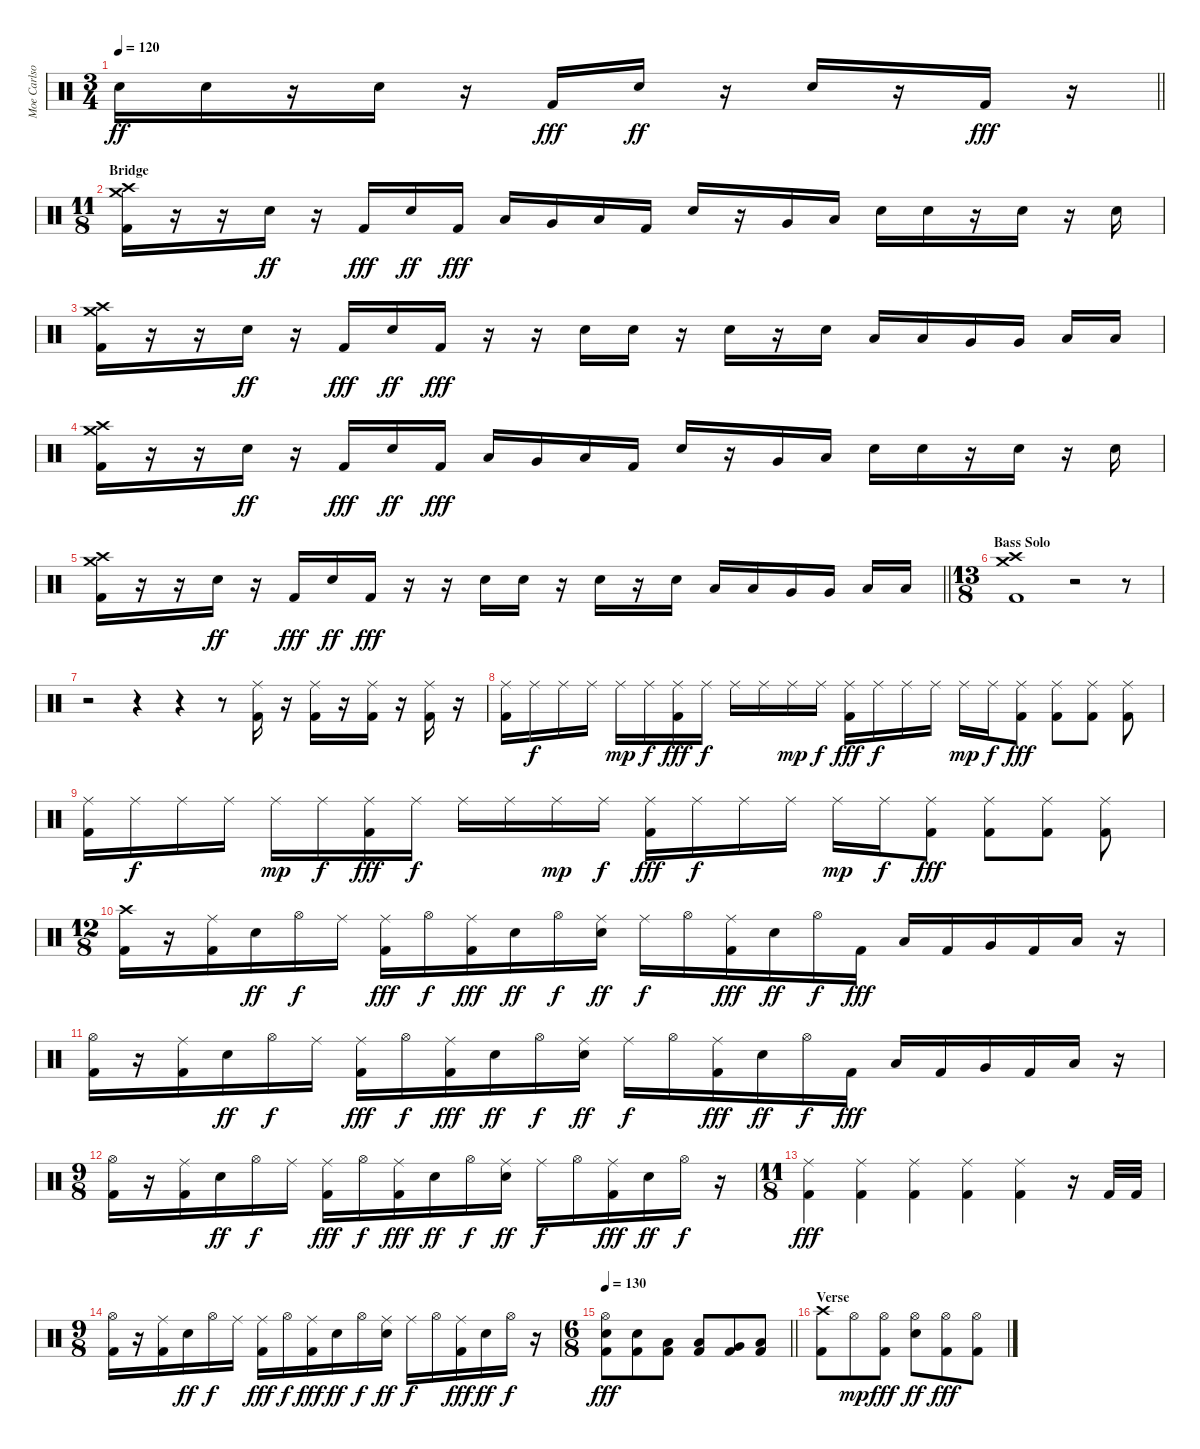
\track ("Moe Carlson" "Moe Carlso") {instrument percussion}
\staff {score}
\articulation defaults
\ts (3 4)
\tempo 120
\clef neutral
\barLineRight lightlight
\ks c "Electric Snare (hit)".16{dy ff} "Electric Snare (hit)".16
r.16 "Electric Snare (hit)".16 r.16 "Kick (hit) 2".16{dy fff} "Electric Snare (hit)".16{dy ff} r.16 "Electric Snare (hit)".16 r.16 "Kick (hit) 2".16{dy fff} r.16 |
\ts (11 8)
\section ("" "Bridge")
("Crash medium (hit)" "Crash high (hit)" "Kick (hit) 2").16 r.16 r.16 "Electric Snare (hit)".16{dy ff} r.16 "Kick (hit) 2".16{dy fff} "Electric Snare (hit)".16{dy ff} "Kick (hit) 2".16{dy fff} "Low Tom (hit)".16 "Very Low Tom (hit)".16 "Low Floor Tom (hit)".16 "Kick (hit) 2".16 "Electric Snare (hit)".16 r.16 "Very Low Tom (hit)".16 "Low Floor Tom (hit)".16 "Electric Snare (hit)".16 "Electric Snare (hit)".16 r.16 "Electric Snare (hit)".16 r.16 "Electric Snare (hit)".16 |
("Crash medium (hit)" "Crash high (hit)" "Kick (hit) 2").16 r.16 r.16 "Electric Snare (hit)".16{dy ff} r.16 "Kick (hit) 2".16{dy fff} "Electric Snare (hit)".16{dy ff} "Kick (hit) 2".16{dy fff} r.16 r.16 "Electric Snare (hit)".16 "Electric Snare (hit)".16 r.16 "Electric Snare (hit)".16 r.16 "Electric Snare (hit)".16 "Low Tom (hit)".16 "Low Tom (hit)".16 "Very Low Tom (hit)".16 "Very Low Tom (hit)".16 "Low Floor Tom (hit)".16 "Low Floor Tom (hit)".16 |
("Crash medium (hit)" "Crash high (hit)" "Kick (hit) 2").16 r.16 r.16 "Electric Snare (hit)".16{dy ff} r.16 "Kick (hit) 2".16{dy fff} "Electric Snare (hit)".16{dy ff} "Kick (hit) 2".16{dy fff} "Low Tom (hit)".16 "Very Low Tom (hit)".16 "Low Floor Tom (hit)".16 "Kick (hit) 2".16 "Electric Snare (hit)".16 r.16 "Very Low Tom (hit)".16 "Low Floor Tom (hit)".16 "Electric Snare (hit)".16 "Electric Snare (hit)".16 r.16 "Electric Snare (hit)".16 r.16 "Electric Snare (hit)".16 |
\barLineRight lightlight
("Crash medium (hit)" "Crash high (hit)" "Kick (hit) 2").16 r.16 r.16 "Electric Snare (hit)".16{dy ff} r.16 "Kick (hit) 2".16{dy fff} "Electric Snare (hit)".16{dy ff} "Kick (hit) 2".16{dy fff} r.16 r.16 "Electric Snare (hit)".16 "Electric Snare (hit)".16 r.16 "Electric Snare (hit)".16 r.16 "Electric Snare (hit)".16 "Low Tom (hit)".16 "Low Tom (hit)".16 "Very Low Tom (hit)".16 "Very Low Tom (hit)".16 "Low Floor Tom (hit)".16 "Low Floor Tom (hit)".16 |
\ts (13 8)
\section ("" "Bass Solo")
("Crash medium (hit)" "Crash high (hit)" "Kick (hit) 2").1 r.2 r.8 |
r.2 r.4 r.4 r.8 ("Ride (middle)" "Kick (hit) 2").16 r.16 ("Ride (middle)" "Kick (hit) 2").16 r.16 ("Ride (middle)" "Kick (hit) 2").16 r.16 ("Ride (middle)" "Kick (hit) 2").16 r.16 |
("Ride (middle)" "Kick (hit) 2").16 "Ride (middle)".16{dy f} "Ride (middle)".16 "Ride (middle)".16 "Ride (middle)".16{dy mp} "Ride (middle)".16{dy f} ("Ride (middle)" "Kick (hit) 2").16{dy fff} "Ride (middle)".16{dy f} "Ride (middle)".16 "Ride (middle)".16 "Ride (middle)".16{dy mp} "Ride (middle)".16{dy f} ("Ride (middle)" "Kick (hit) 2").16{dy fff} "Ride (middle)".16{dy f} "Ride (middle)".16 "Ride (middle)".16 "Ride (middle)".16{dy mp} "Ride (middle)".16{dy f} ("Ride (middle)" "Kick (hit) 2").8{dy fff} ("Ride (middle)" "Kick (hit) 2").8 ("Ride (middle)" "Kick (hit) 2").8 ("Ride (middle)" "Kick (hit) 2").8 |
("Ride (middle)" "Kick (hit) 2").16 "Ride (middle)".16{dy f} "Ride (middle)".16 "Ride (middle)".16 "Ride (middle)".16{dy mp} "Ride (middle)".16{dy f} ("Ride (middle)" "Kick (hit) 2").16{dy fff} "Ride (middle)".16{dy f} "Ride (middle)".16 "Ride (middle)".16 "Ride (middle)".16{dy mp} "Ride (middle)".16{dy f} ("Ride (middle)" "Kick (hit) 2").16{dy fff} "Ride (middle)".16{dy f} "Ride (middle)".16 "Ride (middle)".16 "Ride (middle)".16{dy mp} "Ride (middle)".16{dy f} ("Ride (middle)" "Kick (hit) 2").8{dy fff} ("Ride (middle)" "Kick (hit) 2").8 ("Ride (middle)" "Kick (hit) 2").8 ("Ride (middle)" "Kick (hit) 2").8 |
\ts (12 8)
("Crash high (hit)" "Kick (hit) 2").16 r.16 ("Ride (middle)" "Kick (hit) 2").16 "Electric Snare (hit)".16{dy ff} "Hi-Hat (open)".16{dy f} "Ride (middle)".16 ("Ride (middle)" "Kick (hit) 2").16{dy fff} "Hi-Hat (open)".16{dy f} ("Ride (middle)" "Kick (hit) 2").16{dy fff} "Electric Snare (hit)".16{dy ff} "Hi-Hat (open)".16{dy f} ("Ride (middle)" "Electric Snare (hit)").16{dy ff} "Ride (middle)".16{dy f} "Hi-Hat (open)".16 ("Ride (middle)" "Kick (hit) 2").16{dy fff} "Electric Snare (hit)".16{dy ff} "Hi-Hat (open)".16{dy f} "Kick (hit) 2".16{dy fff} "Low Floor Tom (hit)".16 "Kick (hit) 2".16 "Very Low Tom (hit)".16 "Kick (hit) 2".16 "Low Tom (hit)".16 r.16 |
("Hi-Hat (open)" "Kick (hit) 2").16 r.16 ("Ride (middle)" "Kick (hit) 2").16 "Electric Snare (hit)".16{dy ff} "Hi-Hat (open)".16{dy f} "Ride (middle)".16 ("Ride (middle)" "Kick (hit) 2").16{dy fff} "Hi-Hat (open)".16{dy f} ("Ride (middle)" "Kick (hit) 2").16{dy fff} "Electric Snare (hit)".16{dy ff} "Hi-Hat (open)".16{dy f} ("Ride (middle)" "Electric Snare (hit)").16{dy ff} "Ride (middle)".16{dy f} "Hi-Hat (open)".16 ("Ride (middle)" "Kick (hit) 2").16{dy fff} "Electric Snare (hit)".16{dy ff} "Hi-Hat (open)".16{dy f} "Kick (hit) 2".16{dy fff} "Low Floor Tom (hit)".16 "Kick (hit) 2".16 "Very Low Tom (hit)".16 "Kick (hit) 2".16 "Low Tom (hit)".16 r.16 |
\ts (9 8)
("Hi-Hat (open)" "Kick (hit) 2").16 r.16 ("Ride (middle)" "Kick (hit) 2").16 "Electric Snare (hit)".16{dy ff} "Hi-Hat (open)".16{dy f} "Ride (middle)".16 ("Ride (middle)" "Kick (hit) 2").16{dy fff} "Hi-Hat (open)".16{dy f} ("Ride (middle)" "Kick (hit) 2").16{dy fff} "Electric Snare (hit)".16{dy ff} "Hi-Hat (open)".16{dy f} ("Ride (middle)" "Electric Snare (hit)").16{dy ff} "Ride (middle)".16{dy f} "Hi-Hat (open)".16 ("Ride (middle)" "Kick (hit) 2").16{dy fff} "Electric Snare (hit)".16{dy ff} "Hi-Hat (open)".16{dy f} r.16 |
\ts (11 8)
("Ride (middle)" "Kick (hit) 2").4{dy fff} ("Ride (middle)" "Kick (hit) 2").4 ("Ride (middle)" "Kick (hit) 2").4 ("Ride (middle)" "Kick (hit) 2").4 ("Ride (middle)" "Kick (hit) 2").4 r.16 "Kick (hit) 2".32 "Kick (hit) 2".32 |
\ts (9 8)
("Hi-Hat (open)" "Kick (hit) 2").16 r.16 ("Ride (middle)" "Kick (hit) 2").16 "Electric Snare (hit)".16{dy ff} "Hi-Hat (open)".16{dy f} "Ride (middle)".16 ("Ride (middle)" "Kick (hit) 2").16{dy fff} "Hi-Hat (open)".16{dy f} ("Ride (middle)" "Kick (hit) 2").16{dy fff} "Electric Snare (hit)".16{dy ff} "Hi-Hat (open)".16{dy f} ("Ride (middle)" "Electric Snare (hit)").16{dy ff} "Ride (middle)".16{dy f} "Hi-Hat (open)".16 ("Ride (middle)" "Kick (hit) 2").16{dy fff} "Electric Snare (hit)".16{dy ff} "Hi-Hat (open)".16{dy f} r.16 |
\ts (6 8)
\tempo 130
\barLineRight lightlight
("Hi-Hat (open)" "Electric Snare (hit)" "Kick (hit) 2").8{dy fff} ("Electric Snare (hit)" "Kick (hit) 2").8 ("Low Tom (hit)" "Kick (hit) 2").8 ("Low Tom (hit)" "Kick (hit) 2").8 ("Very Low Tom (hit)" "Kick (hit) 2").8 ("Low Floor Tom (hit)" "Kick (hit) 2").8 |
\section ("" "Verse")
("Crash high (hit)" "Kick (hit) 2").8 "Hi-Hat (open)".8{dy mp} ("Hi-Hat (open)" "Kick (hit) 2").8{dy fff} ("Hi-Hat (open)" "Electric Snare (hit)").8{dy ff} ("Hi-Hat (open)" "Kick (hit) 2").8{dy fff} ("Hi-Hat (open)" "Kick (hit) 2").8
